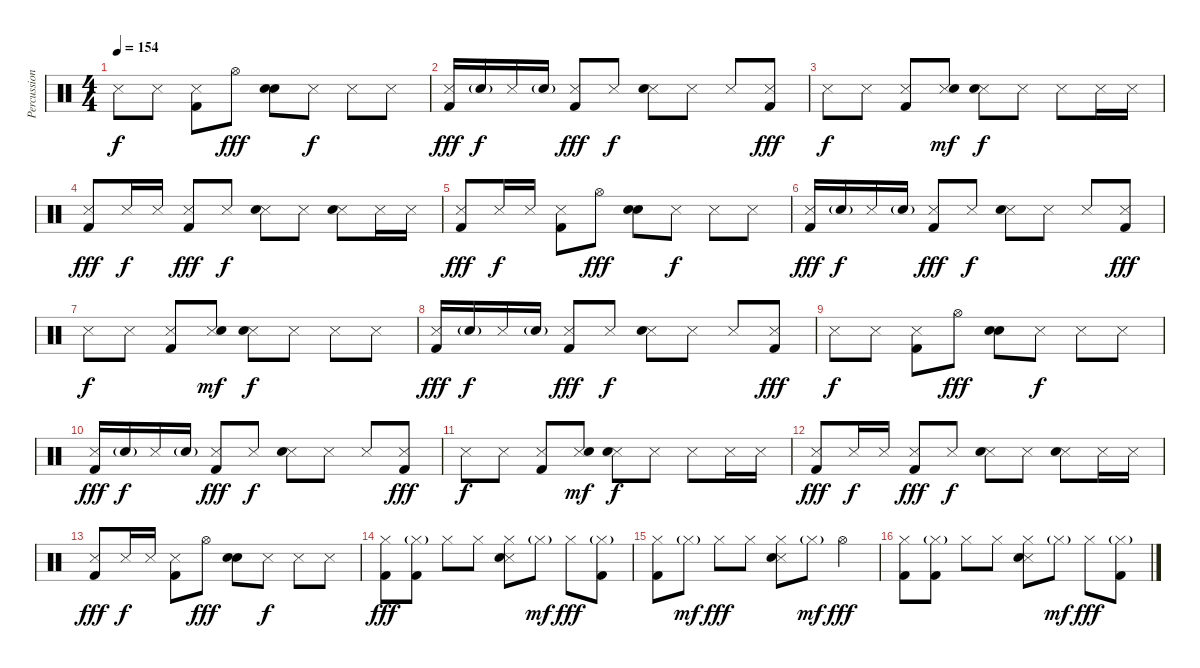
\track ("Percussion" "Percussion") {instrument percussion}
\staff {score}
\articulation defaults
\ts (4 4)
\tempo 154
\clef neutral
\ks c "Snare (side stick) 3".8{dy f} "Snare (side stick) 3".8
("Snare (side stick) 3" "Kick (hit) 2").8 "Hi-Hat (open)".8{dy fff} ("Snare (hit) 2" "Snare (hit) 2").8{bd 30} "Snare (side stick) 3".8{dy f} "Snare (side stick) 3".8 "Snare (side stick) 3".8 |
("Snare (side stick) 3" "Kick (hit) 2").16{dy fff} "Snare (hit) 2"{g}.16{dy f} "Snare (side stick) 3".16 "Snare (hit) 2"{g}.16 ("Snare (side stick) 3" "Kick (hit) 2").8{dy fff} "Snare (side stick) 3".8{dy f} ("Snare (side stick) 3" "Electric Snare (hit)").8 "Snare (side stick) 3".8 "Snare (side stick) 3".8 ("Snare (side stick) 3" "Kick (hit) 2").8{dy fff} |
"Snare (side stick) 3".8{dy f} "Snare (side stick) 3".8 ("Snare (side stick) 3" "Kick (hit) 2").8 ("Snare (side stick) 3" "Snare (hit) 2").8{dy mf} ("Snare (side stick) 3" "Electric Snare (hit)").8{dy f} "Snare (side stick) 3".8 "Snare (side stick) 3".8 "Snare (side stick) 3".16 "Snare (side stick) 3".16 |
("Snare (side stick) 3" "Kick (hit) 2").8{dy fff} "Snare (side stick) 3".16{dy f} "Snare (side stick) 3".16 ("Snare (side stick) 3" "Kick (hit) 2").8{dy fff} "Snare (side stick) 3".8{dy f} ("Snare (side stick) 3" "Electric Snare (hit)").8 "Snare (side stick) 3".8 ("Snare (side stick) 3" "Electric Snare (hit)").8 "Snare (side stick) 3".16 "Snare (side stick) 3".16 |
("Snare (side stick) 3" "Kick (hit) 2").8{dy fff} "Snare (side stick) 3".16{dy f} "Snare (side stick) 3".16 ("Snare (side stick) 3" "Kick (hit) 2").8 "Hi-Hat (open)".8{dy fff} ("Snare (hit) 2" "Snare (hit) 2").8{bd 30} "Snare (side stick) 3".8{dy f} "Snare (side stick) 3".8 "Snare (side stick) 3".8 |
("Snare (side stick) 3" "Kick (hit) 2").16{dy fff} "Snare (hit) 2"{g}.16{dy f} "Snare (side stick) 3".16 "Snare (hit) 2"{g}.16 ("Snare (side stick) 3" "Kick (hit) 2").8{dy fff} "Snare (side stick) 3".8{dy f} ("Snare (side stick) 3" "Electric Snare (hit)").8 "Snare (side stick) 3".8 "Snare (side stick) 3".8 ("Snare (side stick) 3" "Kick (hit) 2").8{dy fff} |
"Snare (side stick) 3".8{dy f} "Snare (side stick) 3".8 ("Snare (side stick) 3" "Kick (hit) 2").8 ("Snare (side stick) 3" "Snare (hit) 2").8{dy mf} ("Snare (side stick) 3" "Electric Snare (hit)").8{dy f} "Snare (side stick) 3".8 "Snare (side stick) 3".8 "Snare (side stick) 3".8 |
("Snare (side stick) 3" "Kick (hit) 2").16{dy fff} "Snare (hit) 2"{g}.16{dy f} "Snare (side stick) 3".16 "Snare (hit) 2"{g}.16 ("Snare (side stick) 3" "Kick (hit) 2").8{dy fff} "Snare (side stick) 3".8{dy f} ("Snare (side stick) 3" "Electric Snare (hit)").8 "Snare (side stick) 3".8 "Snare (side stick) 3".8 ("Snare (side stick) 3" "Kick (hit) 2").8{dy fff} |
"Snare (side stick) 3".8{dy f} "Snare (side stick) 3".8 ("Snare (side stick) 3" "Kick (hit) 2").8 "Hi-Hat (open)".8{dy fff} ("Snare (hit) 2" "Snare (hit) 2").8{bd 30} "Snare (side stick) 3".8{dy f} "Snare (side stick) 3".8 "Snare (side stick) 3".8 |
("Snare (side stick) 3" "Kick (hit) 2").16{dy fff} "Snare (hit) 2"{g}.16{dy f} "Snare (side stick) 3".16 "Snare (hit) 2"{g}.16 ("Snare (side stick) 3" "Kick (hit) 2").8{dy fff} "Snare (side stick) 3".8{dy f} ("Snare (side stick) 3" "Electric Snare (hit)").8 "Snare (side stick) 3".8 "Snare (side stick) 3".8 ("Snare (side stick) 3" "Kick (hit) 2").8{dy fff} |
"Snare (side stick) 3".8{dy f} "Snare (side stick) 3".8 ("Snare (side stick) 3" "Kick (hit) 2").8 ("Snare (side stick) 3" "Snare (hit) 2").8{dy mf} ("Snare (side stick) 3" "Electric Snare (hit)").8{dy f} "Snare (side stick) 3".8 "Snare (side stick) 3".8 "Snare (side stick) 3".16 "Snare (side stick) 3".16 |
("Snare (side stick) 3" "Kick (hit) 2").8{dy fff} "Snare (side stick) 3".16{dy f} "Snare (side stick) 3".16 ("Snare (side stick) 3" "Kick (hit) 2").8{dy fff} "Snare (side stick) 3".8{dy f} ("Snare (side stick) 3" "Electric Snare (hit)").8 "Snare (side stick) 3".8 ("Snare (side stick) 3" "Electric Snare (hit)").8 "Snare (side stick) 3".16 "Snare (side stick) 3".16 |
("Snare (side stick) 3" "Kick (hit) 2").8{dy fff} "Snare (side stick) 3".16{dy f} "Snare (side stick) 3".16 ("Snare (side stick) 3" "Kick (hit) 2").8 "Hi-Hat (open)".8{dy fff} ("Snare (hit) 2" "Snare (hit) 2").8{bd 30} "Snare (side stick) 3".8{dy f} "Snare (side stick) 3".8 "Snare (side stick) 3".8 |
("Hi-Hat (closed)" "Kick (hit) 2").8{dy fff} ("Hi-Hat (closed)"{g} "Kick (hit) 2").8 "Hi-Hat (closed)".8 "Hi-Hat (closed)".8 ("Hi-Hat (closed)" "Snare (side stick) 3" "Electric Snare (hit)").8 "Hi-Hat (closed)"{g}.8{dy mf} "Hi-Hat (closed)".8{dy fff} ("Hi-Hat (closed)"{g} "Kick (hit) 2").8 |
("Hi-Hat (closed)" "Kick (hit) 2").8 "Hi-Hat (closed)"{g}.8{dy mf} "Hi-Hat (closed)".8{dy fff} "Hi-Hat (closed)".8 ("Hi-Hat (closed)" "Snare (side stick) 3" "Electric Snare (hit)").8 "Hi-Hat (closed)"{g}.8{dy mf} "Hi-Hat (open)".4{dy fff} |
("Hi-Hat (closed)" "Kick (hit) 2").8 ("Hi-Hat (closed)"{g} "Kick (hit) 2").8 "Hi-Hat (closed)".8 "Hi-Hat (closed)".8 ("Hi-Hat (closed)" "Snare (side stick) 3" "Electric Snare (hit)").8 "Hi-Hat (closed)"{g}.8{dy mf} "Hi-Hat (closed)".8{dy fff} ("Hi-Hat (closed)"{g} "Kick (hit) 2").8
